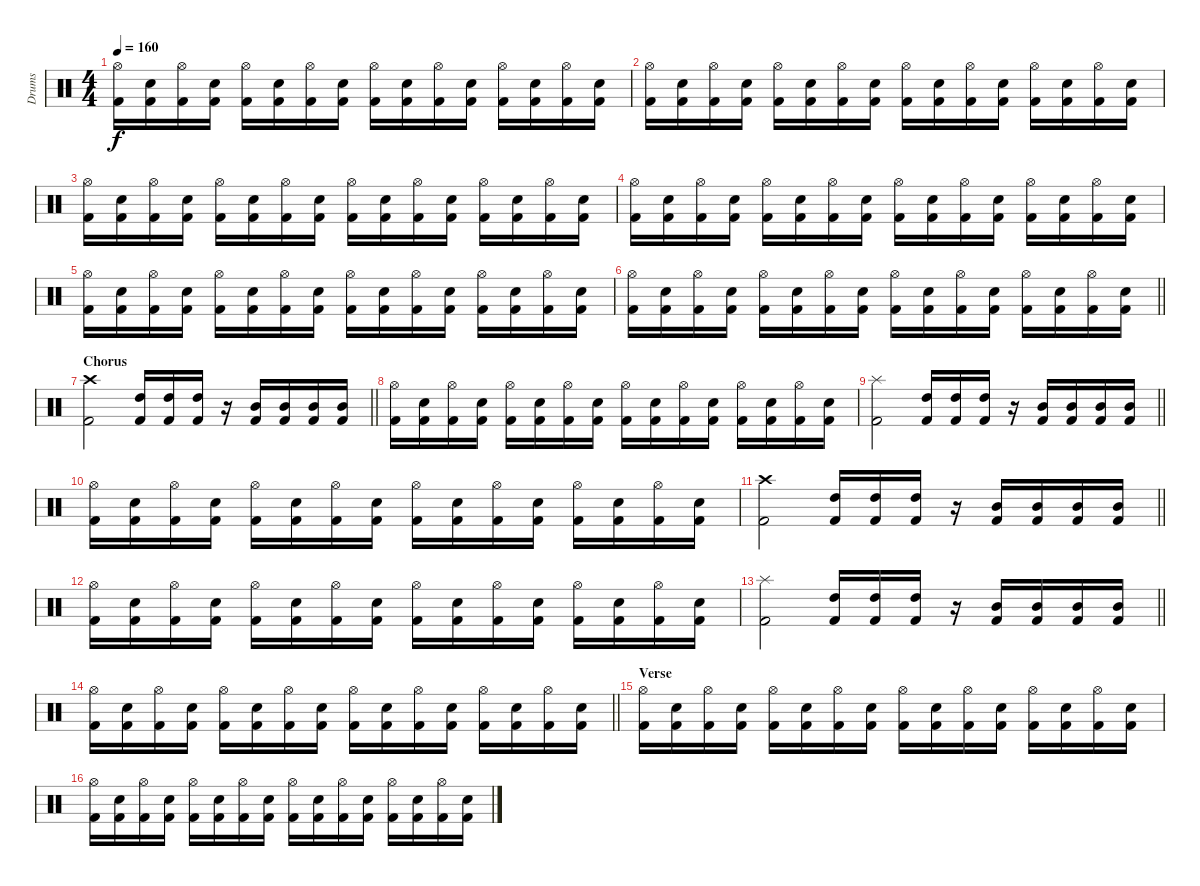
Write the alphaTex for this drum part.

\track ("Drums" "Drums") {instrument percussion}
\staff {score}
\articulation defaults
\ts (4 4)
\tempo 160
\clef neutral
\ks c
("Kick (hit) 2" "Hi-Hat (open)").16{dy f} ("Kick (hit) 2" "Snare (hit) 2").16 ("Kick (hit) 2" "Hi-Hat (open)").16 ("Kick (hit) 2" "Snare (hit) 2").16 ("Kick (hit) 2" "Hi-Hat (open)").16 ("Kick (hit) 2" "Snare (hit) 2").16 ("Kick (hit) 2" "Hi-Hat (open)").16 ("Kick (hit) 2" "Snare (hit) 2").16 ("Kick (hit) 2" "Hi-Hat (open)").16 ("Kick (hit) 2" "Snare (hit) 2").16 ("Kick (hit) 2" "Hi-Hat (open)").16 ("Kick (hit) 2" "Snare (hit) 2").16 ("Kick (hit) 2" "Hi-Hat (open)").16 ("Kick (hit) 2" "Snare (hit) 2").16 ("Kick (hit) 2" "Hi-Hat (open)").16 ("Kick (hit) 2" "Snare (hit) 2").16 |
("Kick (hit) 2" "Hi-Hat (open)").16 ("Kick (hit) 2" "Snare (hit) 2").16 ("Kick (hit) 2" "Hi-Hat (open)").16 ("Kick (hit) 2" "Snare (hit) 2").16 ("Kick (hit) 2" "Hi-Hat (open)").16 ("Kick (hit) 2" "Snare (hit) 2").16 ("Kick (hit) 2" "Hi-Hat (open)").16 ("Kick (hit) 2" "Snare (hit) 2").16 ("Kick (hit) 2" "Hi-Hat (open)").16 ("Kick (hit) 2" "Snare (hit) 2").16 ("Kick (hit) 2" "Hi-Hat (open)").16 ("Kick (hit) 2" "Snare (hit) 2").16 ("Kick (hit) 2" "Hi-Hat (open)").16 ("Kick (hit) 2" "Snare (hit) 2").16 ("Kick (hit) 2" "Hi-Hat (open)").16 ("Kick (hit) 2" "Snare (hit) 2").16 |
("Kick (hit) 2" "Hi-Hat (open)").16 ("Kick (hit) 2" "Snare (hit) 2").16 ("Kick (hit) 2" "Hi-Hat (open)").16 ("Kick (hit) 2" "Snare (hit) 2").16 ("Kick (hit) 2" "Hi-Hat (open)").16 ("Kick (hit) 2" "Snare (hit) 2").16 ("Kick (hit) 2" "Hi-Hat (open)").16 ("Kick (hit) 2" "Snare (hit) 2").16 ("Kick (hit) 2" "Hi-Hat (open)").16 ("Kick (hit) 2" "Snare (hit) 2").16 ("Kick (hit) 2" "Hi-Hat (open)").16 ("Kick (hit) 2" "Snare (hit) 2").16 ("Kick (hit) 2" "Hi-Hat (open)").16 ("Kick (hit) 2" "Snare (hit) 2").16 ("Kick (hit) 2" "Hi-Hat (open)").16 ("Kick (hit) 2" "Snare (hit) 2").16 |
("Kick (hit) 2" "Hi-Hat (open)").16 ("Kick (hit) 2" "Snare (hit) 2").16 ("Kick (hit) 2" "Hi-Hat (open)").16 ("Kick (hit) 2" "Snare (hit) 2").16 ("Kick (hit) 2" "Hi-Hat (open)").16 ("Kick (hit) 2" "Snare (hit) 2").16 ("Kick (hit) 2" "Hi-Hat (open)").16 ("Kick (hit) 2" "Snare (hit) 2").16 ("Kick (hit) 2" "Hi-Hat (open)").16 ("Kick (hit) 2" "Snare (hit) 2").16 ("Kick (hit) 2" "Hi-Hat (open)").16 ("Kick (hit) 2" "Snare (hit) 2").16 ("Kick (hit) 2" "Hi-Hat (open)").16 ("Kick (hit) 2" "Snare (hit) 2").16 ("Kick (hit) 2" "Hi-Hat (open)").16 ("Kick (hit) 2" "Snare (hit) 2").16 |
("Kick (hit) 2" "Hi-Hat (open)").16 ("Kick (hit) 2" "Snare (hit) 2").16 ("Kick (hit) 2" "Hi-Hat (open)").16 ("Kick (hit) 2" "Snare (hit) 2").16 ("Kick (hit) 2" "Hi-Hat (open)").16 ("Kick (hit) 2" "Snare (hit) 2").16 ("Kick (hit) 2" "Hi-Hat (open)").16 ("Kick (hit) 2" "Snare (hit) 2").16 ("Kick (hit) 2" "Hi-Hat (open)").16 ("Kick (hit) 2" "Snare (hit) 2").16 ("Kick (hit) 2" "Hi-Hat (open)").16 ("Kick (hit) 2" "Snare (hit) 2").16 ("Kick (hit) 2" "Hi-Hat (open)").16 ("Kick (hit) 2" "Snare (hit) 2").16 ("Kick (hit) 2" "Hi-Hat (open)").16 ("Kick (hit) 2" "Snare (hit) 2").16 |
\barLineRight lightlight
("Kick (hit) 2" "Hi-Hat (open)").16 ("Kick (hit) 2" "Snare (hit) 2").16 ("Kick (hit) 2" "Hi-Hat (open)").16 ("Kick (hit) 2" "Snare (hit) 2").16 ("Kick (hit) 2" "Hi-Hat (open)").16 ("Kick (hit) 2" "Snare (hit) 2").16 ("Kick (hit) 2" "Hi-Hat (open)").16 ("Kick (hit) 2" "Snare (hit) 2").16 ("Kick (hit) 2" "Hi-Hat (open)").16 ("Kick (hit) 2" "Snare (hit) 2").16 ("Kick (hit) 2" "Hi-Hat (open)").16 ("Kick (hit) 2" "Snare (hit) 2").16 ("Kick (hit) 2" "Hi-Hat (open)").16 ("Kick (hit) 2" "Snare (hit) 2").16 ("Kick (hit) 2" "Hi-Hat (open)").16 ("Kick (hit) 2" "Snare (hit) 2").16 |
\section ("" "Chorus")
\barLineRight lightlight
("Kick (hit) 2" "Crash high (hit)").2 ("Kick (hit) 2" "High Tom (hit)").16 ("Kick (hit) 2" "High Tom (hit)").16 ("Kick (hit) 2" "High Tom (hit)").16 r.16 ("Kick (hit) 2" "Mid Tom (hit)").16 ("Kick (hit) 2" "Mid Tom (hit)").16 ("Kick (hit) 2" "Mid Tom (hit)").16 ("Kick (hit) 2" "Mid Tom (hit)").16 |
("Kick (hit) 2" "Hi-Hat (open)").16 ("Kick (hit) 2" "Snare (hit) 2").16 ("Kick (hit) 2" "Hi-Hat (open)").16 ("Kick (hit) 2" "Snare (hit) 2").16 ("Kick (hit) 2" "Hi-Hat (open)").16 ("Kick (hit) 2" "Snare (hit) 2").16 ("Kick (hit) 2" "Hi-Hat (open)").16 ("Kick (hit) 2" "Snare (hit) 2").16 ("Kick (hit) 2" "Hi-Hat (open)").16 ("Kick (hit) 2" "Snare (hit) 2").16 ("Kick (hit) 2" "Hi-Hat (open)").16 ("Kick (hit) 2" "Snare (hit) 2").16 ("Kick (hit) 2" "Hi-Hat (open)").16 ("Kick (hit) 2" "Snare (hit) 2").16 ("Kick (hit) 2" "Hi-Hat (open)").16 ("Kick (hit) 2" "Snare (hit) 2").16 |
\barLineRight lightlight
("Kick (hit) 2" "Splash (hit)").2 ("Kick (hit) 2" "High Tom (hit)").16 ("Kick (hit) 2" "High Tom (hit)").16 ("Kick (hit) 2" "High Tom (hit)").16 r.16 ("Kick (hit) 2" "Mid Tom (hit)").16 ("Kick (hit) 2" "Mid Tom (hit)").16 ("Kick (hit) 2" "Mid Tom (hit)").16 ("Kick (hit) 2" "Mid Tom (hit)").16 |
("Kick (hit) 2" "Hi-Hat (open)").16 ("Kick (hit) 2" "Snare (hit) 2").16 ("Kick (hit) 2" "Hi-Hat (open)").16 ("Kick (hit) 2" "Snare (hit) 2").16 ("Kick (hit) 2" "Hi-Hat (open)").16 ("Kick (hit) 2" "Snare (hit) 2").16 ("Kick (hit) 2" "Hi-Hat (open)").16 ("Kick (hit) 2" "Snare (hit) 2").16 ("Kick (hit) 2" "Hi-Hat (open)").16 ("Kick (hit) 2" "Snare (hit) 2").16 ("Kick (hit) 2" "Hi-Hat (open)").16 ("Kick (hit) 2" "Snare (hit) 2").16 ("Kick (hit) 2" "Hi-Hat (open)").16 ("Kick (hit) 2" "Snare (hit) 2").16 ("Kick (hit) 2" "Hi-Hat (open)").16 ("Kick (hit) 2" "Snare (hit) 2").16 |
\barLineRight lightlight
("Kick (hit) 2" "Crash high (hit)").2 ("Kick (hit) 2" "High Tom (hit)").16 ("Kick (hit) 2" "High Tom (hit)").16 ("Kick (hit) 2" "High Tom (hit)").16 r.16 ("Kick (hit) 2" "Mid Tom (hit)").16 ("Kick (hit) 2" "Mid Tom (hit)").16 ("Kick (hit) 2" "Mid Tom (hit)").16 ("Kick (hit) 2" "Mid Tom (hit)").16 |
("Kick (hit) 2" "Hi-Hat (open)").16 ("Kick (hit) 2" "Snare (hit) 2").16 ("Kick (hit) 2" "Hi-Hat (open)").16 ("Kick (hit) 2" "Snare (hit) 2").16 ("Kick (hit) 2" "Hi-Hat (open)").16 ("Kick (hit) 2" "Snare (hit) 2").16 ("Kick (hit) 2" "Hi-Hat (open)").16 ("Kick (hit) 2" "Snare (hit) 2").16 ("Kick (hit) 2" "Hi-Hat (open)").16 ("Kick (hit) 2" "Snare (hit) 2").16 ("Kick (hit) 2" "Hi-Hat (open)").16 ("Kick (hit) 2" "Snare (hit) 2").16 ("Kick (hit) 2" "Hi-Hat (open)").16 ("Kick (hit) 2" "Snare (hit) 2").16 ("Kick (hit) 2" "Hi-Hat (open)").16 ("Kick (hit) 2" "Snare (hit) 2").16 |
\barLineRight lightlight
("Kick (hit) 2" "Splash (hit)").2 ("Kick (hit) 2" "High Tom (hit)").16 ("Kick (hit) 2" "High Tom (hit)").16 ("Kick (hit) 2" "High Tom (hit)").16 r.16 ("Kick (hit) 2" "Mid Tom (hit)").16 ("Kick (hit) 2" "Mid Tom (hit)").16 ("Kick (hit) 2" "Mid Tom (hit)").16 ("Kick (hit) 2" "Mid Tom (hit)").16 |
\barLineRight lightlight
("Kick (hit) 2" "Hi-Hat (open)").16 ("Kick (hit) 2" "Snare (hit) 2").16 ("Kick (hit) 2" "Hi-Hat (open)").16 ("Kick (hit) 2" "Snare (hit) 2").16 ("Kick (hit) 2" "Hi-Hat (open)").16 ("Kick (hit) 2" "Snare (hit) 2").16 ("Kick (hit) 2" "Hi-Hat (open)").16 ("Kick (hit) 2" "Snare (hit) 2").16 ("Kick (hit) 2" "Hi-Hat (open)").16 ("Kick (hit) 2" "Snare (hit) 2").16 ("Kick (hit) 2" "Hi-Hat (open)").16 ("Kick (hit) 2" "Snare (hit) 2").16 ("Kick (hit) 2" "Hi-Hat (open)").16 ("Kick (hit) 2" "Snare (hit) 2").16 ("Kick (hit) 2" "Hi-Hat (open)").16 ("Kick (hit) 2" "Snare (hit) 2").16 |
\section ("" "Verse")
("Kick (hit) 2" "Hi-Hat (open)").16 ("Kick (hit) 2" "Snare (hit) 2").16 ("Kick (hit) 2" "Hi-Hat (open)").16 ("Kick (hit) 2" "Snare (hit) 2").16 ("Kick (hit) 2" "Hi-Hat (open)").16 ("Kick (hit) 2" "Snare (hit) 2").16 ("Kick (hit) 2" "Hi-Hat (open)").16 ("Kick (hit) 2" "Snare (hit) 2").16 ("Kick (hit) 2" "Hi-Hat (open)").16 ("Kick (hit) 2" "Snare (hit) 2").16 ("Kick (hit) 2" "Hi-Hat (open)").16 ("Kick (hit) 2" "Snare (hit) 2").16 ("Kick (hit) 2" "Hi-Hat (open)").16 ("Kick (hit) 2" "Snare (hit) 2").16 ("Kick (hit) 2" "Hi-Hat (open)").16 ("Kick (hit) 2" "Snare (hit) 2").16 |
("Kick (hit) 2" "Hi-Hat (open)").16 ("Kick (hit) 2" "Snare (hit) 2").16 ("Kick (hit) 2" "Hi-Hat (open)").16 ("Kick (hit) 2" "Snare (hit) 2").16 ("Kick (hit) 2" "Hi-Hat (open)").16 ("Kick (hit) 2" "Snare (hit) 2").16 ("Kick (hit) 2" "Hi-Hat (open)").16 ("Kick (hit) 2" "Snare (hit) 2").16 ("Kick (hit) 2" "Hi-Hat (open)").16 ("Kick (hit) 2" "Snare (hit) 2").16 ("Kick (hit) 2" "Hi-Hat (open)").16 ("Kick (hit) 2" "Snare (hit) 2").16 ("Kick (hit) 2" "Hi-Hat (open)").16 ("Kick (hit) 2" "Snare (hit) 2").16 ("Kick (hit) 2" "Hi-Hat (open)").16 ("Kick (hit) 2" "Snare (hit) 2").16
